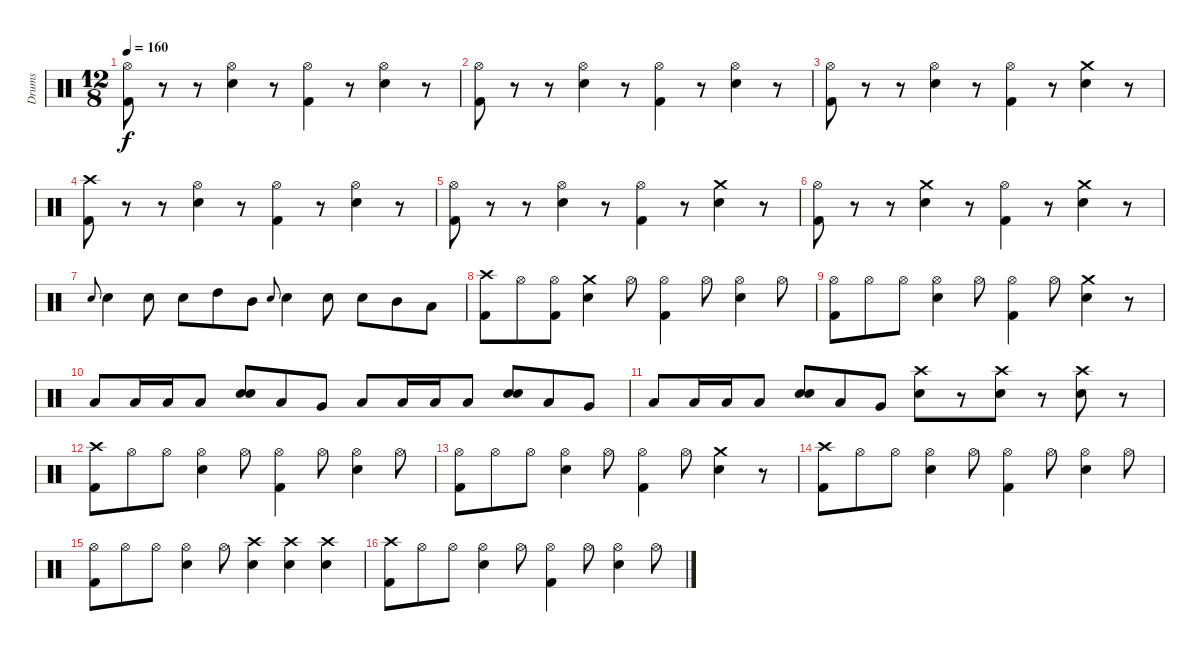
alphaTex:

\track ("Drums" "Drums") {instrument percussion}
\staff {score}
\articulation defaults
\ts (12 8)
\tempo 160
\clef neutral
\ks c
("Kick (hit) 2" "Hi-Hat (open)").8{dy f} r.8 r.8 ("Snare (hit) 2" "Hi-Hat (open)").4 r.8 ("Kick (hit) 2" "Hi-Hat (open)").4 r.8 ("Snare (hit) 2" "Hi-Hat (open)").4 r.8 |
("Kick (hit) 2" "Hi-Hat (open)").8 r.8 r.8 ("Snare (hit) 2" "Hi-Hat (open)").4 r.8 ("Kick (hit) 2" "Hi-Hat (open)").4 r.8 ("Snare (hit) 2" "Hi-Hat (open)").4 r.8 |
("Kick (hit) 2" "Hi-Hat (open)").8 r.8 r.8 ("Snare (hit) 2" "Hi-Hat (open)").4 r.8 ("Kick (hit) 2" "Hi-Hat (open)").4 r.8 ("Snare (hit) 2" "Crash medium (hit)").4 r.8 |
("Kick (hit) 2" "Crash high (hit)").8 r.8 r.8 ("Snare (hit) 2" "Hi-Hat (open)").4 r.8 ("Kick (hit) 2" "Hi-Hat (open)").4 r.8 ("Snare (hit) 2" "Hi-Hat (open)").4 r.8 |
("Kick (hit) 2" "Hi-Hat (open)").8 r.8 r.8 ("Snare (hit) 2" "Hi-Hat (open)").4 r.8 ("Kick (hit) 2" "Hi-Hat (open)").4 r.8 ("Snare (hit) 2" "Crash medium (hit)").4 r.8 |
("Kick (hit) 2" "Hi-Hat (open)").8 r.8 r.8 ("Snare (hit) 2" "Crash medium (hit)").4 r.8 ("Kick (hit) 2" "Hi-Hat (open)").4 r.8 ("Snare (hit) 2" "Crash medium (hit)").4 r.8 |
"Snare (hit) 2".8{gr onbeat} "Snare (hit) 2".4 "Snare (hit) 2".8 "Snare (hit) 2".8 "High Tom (hit)".8 "Mid Tom (hit)".8 "Snare (hit) 2".8{gr onbeat} "Snare (hit) 2".4 "Snare (hit) 2".8 "Snare (hit) 2".8 "Mid Tom (hit)".8 "Low Tom (hit)".8 |
("Kick (hit) 2" "Crash high (hit)").8 "Hi-Hat (open)".8 ("Kick (hit) 2" "Hi-Hat (open)").8 ("Snare (hit) 2" "Crash medium (hit)").4 "Hi-Hat (open)".8 ("Kick (hit) 2" "Hi-Hat (open)").4 "Hi-Hat (open)".8 ("Snare (hit) 2" "Hi-Hat (open)").4 "Hi-Hat (open)".8 |
("Kick (hit) 2" "Hi-Hat (open)").8 "Hi-Hat (open)".8 "Hi-Hat (open)".8 ("Snare (hit) 2" "Hi-Hat (open)").4 "Hi-Hat (open)".8 ("Kick (hit) 2" "Hi-Hat (open)").4 "Hi-Hat (open)".8 ("Snare (hit) 2" "Crash medium (hit)").4 r.8 |
"Low Tom (hit)".8 "Low Tom (hit)".16 "Low Tom (hit)".16 "Low Tom (hit)".8 ("Snare (hit) 2" "Snare (hit) 2").8 "Low Tom (hit)".8 "Very Low Tom (hit)".8 "Low Tom (hit)".8 "Low Tom (hit)".16 "Low Tom (hit)".16 "Low Tom (hit)".8 ("Snare (hit) 2" "Snare (hit) 2").8 "Low Tom (hit)".8 "Very Low Tom (hit)".8 |
"Low Tom (hit)".8 "Low Tom (hit)".16 "Low Tom (hit)".16 "Low Tom (hit)".8 ("Snare (hit) 2" "Snare (hit) 2").8 "Low Tom (hit)".8 "Very Low Tom (hit)".8 ("Crash high (hit)" "Snare (hit) 2").8 r.8 ("Crash high (hit)" "Snare (hit) 2").8 r.8 ("Crash high (hit)" "Snare (hit) 2").8 r.8 |
("Kick (hit) 2" "Crash high (hit)").8 "Hi-Hat (open)".8 "Hi-Hat (open)".8 ("Snare (hit) 2" "Hi-Hat (open)").4 "Hi-Hat (open)".8 ("Kick (hit) 2" "Hi-Hat (open)").4 "Hi-Hat (open)".8 ("Snare (hit) 2" "Hi-Hat (open)").4 "Hi-Hat (open)".8 |
("Kick (hit) 2" "Hi-Hat (open)").8 "Hi-Hat (open)".8 "Hi-Hat (open)".8 ("Snare (hit) 2" "Hi-Hat (open)").4 "Hi-Hat (open)".8 ("Kick (hit) 2" "Hi-Hat (open)").4 "Hi-Hat (open)".8 ("Snare (hit) 2" "Crash medium (hit)").4 r.8 |
("Kick (hit) 2" "Crash high (hit)").8 "Hi-Hat (open)".8 "Hi-Hat (open)".8 ("Snare (hit) 2" "Hi-Hat (open)").4 "Hi-Hat (open)".8 ("Kick (hit) 2" "Hi-Hat (open)").4 "Hi-Hat (open)".8 ("Snare (hit) 2" "Hi-Hat (open)").4 "Hi-Hat (open)".8 |
("Kick (hit) 2" "Hi-Hat (open)").8 "Hi-Hat (open)".8 "Hi-Hat (open)".8 ("Snare (hit) 2" "Hi-Hat (open)").4 "Hi-Hat (open)".8 ("Snare (hit) 2" "Crash high (hit)").4 ("Snare (hit) 2" "Crash high (hit)").4 ("Snare (hit) 2" "Crash high (hit)").4 |
("Kick (hit) 2" "Crash high (hit)").8 "Hi-Hat (open)".8 "Hi-Hat (open)".8 ("Snare (hit) 2" "Hi-Hat (open)").4 "Hi-Hat (open)".8 ("Kick (hit) 2" "Hi-Hat (open)").4 "Hi-Hat (open)".8 ("Snare (hit) 2" "Hi-Hat (open)").4 "Hi-Hat (open)".8
